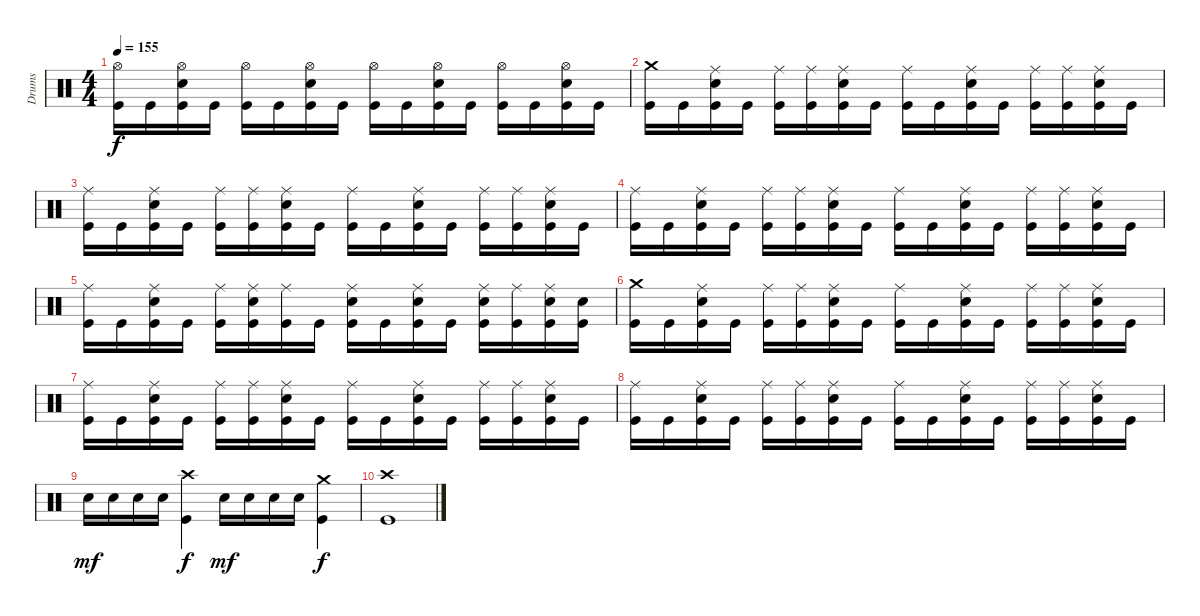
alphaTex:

\track ("Drums" "Drums") {instrument percussion}
\staff {score}
\articulation defaults
\ts (4 4)
\tempo 155
\clef neutral
\ks c
("Hi-Hat (open)" "Kick (hit)").16{dy f} "Kick (hit)".16 ("Hi-Hat (open)" "Snare (hit) 2" "Kick (hit)").16 "Kick (hit)".16 ("Hi-Hat (open)" "Kick (hit)").16 "Kick (hit)".16 ("Hi-Hat (open)" "Snare (hit) 2" "Kick (hit)").16 "Kick (hit)".16 ("Hi-Hat (open)" "Kick (hit)").16 "Kick (hit)".16 ("Hi-Hat (open)" "Snare (hit) 2" "Kick (hit)").16 "Kick (hit)".16 ("Hi-Hat (open)" "Kick (hit)").16 "Kick (hit)".16 ("Hi-Hat (open)" "Snare (hit) 2" "Kick (hit)").16 "Kick (hit)".16 |
("Crash medium (hit)" "Kick (hit)").16 "Kick (hit)".16 ("Ride (middle)" "Snare (hit) 2" "Kick (hit)").16 "Kick (hit)".16 ("Ride (middle)" "Kick (hit)").16 ("Ride (middle)" "Kick (hit)").16 ("Ride (middle)" "Snare (hit) 2" "Kick (hit)").16 "Kick (hit)".16 ("Ride (middle)" "Kick (hit)").16 "Kick (hit)".16 ("Ride (middle)" "Snare (hit) 2" "Kick (hit)").16 "Kick (hit)".16 ("Ride (middle)" "Kick (hit)").16 ("Ride (middle)" "Kick (hit)").16 ("Ride (middle)" "Snare (hit) 2" "Kick (hit)").16 "Kick (hit)".16 |
("Ride (middle)" "Kick (hit)").16 "Kick (hit)".16 ("Ride (middle)" "Snare (hit) 2" "Kick (hit)").16 "Kick (hit)".16 ("Ride (middle)" "Kick (hit)").16 ("Ride (middle)" "Kick (hit)").16 ("Ride (middle)" "Snare (hit) 2" "Kick (hit)").16 "Kick (hit)".16 ("Ride (middle)" "Kick (hit)").16 "Kick (hit)".16 ("Ride (middle)" "Snare (hit) 2" "Kick (hit)").16 "Kick (hit)".16 ("Ride (middle)" "Kick (hit)").16 ("Ride (middle)" "Kick (hit)").16 ("Ride (middle)" "Snare (hit) 2" "Kick (hit)").16 "Kick (hit)".16 |
("Ride (middle)" "Kick (hit)").16 "Kick (hit)".16 ("Ride (middle)" "Snare (hit) 2" "Kick (hit)").16 "Kick (hit)".16 ("Ride (middle)" "Kick (hit)").16 ("Ride (middle)" "Kick (hit)").16 ("Ride (middle)" "Snare (hit) 2" "Kick (hit)").16 "Kick (hit)".16 ("Ride (middle)" "Kick (hit)").16 "Kick (hit)".16 ("Ride (middle)" "Snare (hit) 2" "Kick (hit)").16 "Kick (hit)".16 ("Ride (middle)" "Kick (hit)").16 ("Ride (middle)" "Kick (hit)").16 ("Ride (middle)" "Snare (hit) 2" "Kick (hit)").16 "Kick (hit)".16 |
("Ride (middle)" "Kick (hit)").16 "Kick (hit)".16 ("Ride (middle)" "Snare (hit) 2" "Kick (hit)").16 "Kick (hit)".16 ("Ride (middle)" "Kick (hit)").16 ("Ride (middle)" "Snare (hit) 2" "Kick (hit)").16 ("Ride (middle)" "Kick (hit)").16 "Kick (hit)".16 ("Ride (middle)" "Snare (hit) 2" "Kick (hit)").16 "Kick (hit)".16 ("Ride (middle)" "Snare (hit) 2" "Kick (hit)").16 "Kick (hit)".16 ("Ride (middle)" "Snare (hit) 2" "Kick (hit)").16 ("Ride (middle)" "Kick (hit)").16 ("Ride (middle)" "Snare (hit) 2" "Kick (hit)").16 ("Snare (hit) 2" "Kick (hit)").16 |
("Crash medium (hit)" "Kick (hit)").16 "Kick (hit)".16 ("Ride (middle)" "Snare (hit) 2" "Kick (hit)").16 "Kick (hit)".16 ("Ride (middle)" "Kick (hit)").16 ("Ride (middle)" "Kick (hit)").16 ("Ride (middle)" "Snare (hit) 2" "Kick (hit)").16 "Kick (hit)".16 ("Ride (middle)" "Kick (hit)").16 "Kick (hit)".16 ("Ride (middle)" "Snare (hit) 2" "Kick (hit)").16 "Kick (hit)".16 ("Ride (middle)" "Kick (hit)").16 ("Ride (middle)" "Kick (hit)").16 ("Ride (middle)" "Snare (hit) 2" "Kick (hit)").16 "Kick (hit)".16 |
("Ride (middle)" "Kick (hit)").16 "Kick (hit)".16 ("Ride (middle)" "Snare (hit) 2" "Kick (hit)").16 "Kick (hit)".16 ("Ride (middle)" "Kick (hit)").16 ("Ride (middle)" "Kick (hit)").16 ("Ride (middle)" "Snare (hit) 2" "Kick (hit)").16 "Kick (hit)".16 ("Ride (middle)" "Kick (hit)").16 "Kick (hit)".16 ("Ride (middle)" "Snare (hit) 2" "Kick (hit)").16 "Kick (hit)".16 ("Ride (middle)" "Kick (hit)").16 ("Ride (middle)" "Kick (hit)").16 ("Ride (middle)" "Snare (hit) 2" "Kick (hit)").16 "Kick (hit)".16 |
("Ride (middle)" "Kick (hit)").16 "Kick (hit)".16 ("Ride (middle)" "Snare (hit) 2" "Kick (hit)").16 "Kick (hit)".16 ("Ride (middle)" "Kick (hit)").16 ("Ride (middle)" "Kick (hit)").16 ("Ride (middle)" "Snare (hit) 2" "Kick (hit)").16 "Kick (hit)".16 ("Ride (middle)" "Kick (hit)").16 "Kick (hit)".16 ("Ride (middle)" "Snare (hit) 2" "Kick (hit)").16 "Kick (hit)".16 ("Ride (middle)" "Kick (hit)").16 ("Ride (middle)" "Kick (hit)").16 ("Ride (middle)" "Snare (hit) 2" "Kick (hit)").16 "Kick (hit)".16 |
"Snare (hit) 2".16{dy mf} "Snare (hit) 2".16 "Snare (hit) 2".16 "Snare (hit) 2".16 ("Crash high (hit)" "Kick (hit)").4{dy f} "Snare (hit) 2".16{dy mf} "Snare (hit) 2".16 "Snare (hit) 2".16 "Snare (hit) 2".16 ("Crash medium (hit)" "Kick (hit)").4{dy f} |
("Crash high (hit)" "Kick (hit)").1
